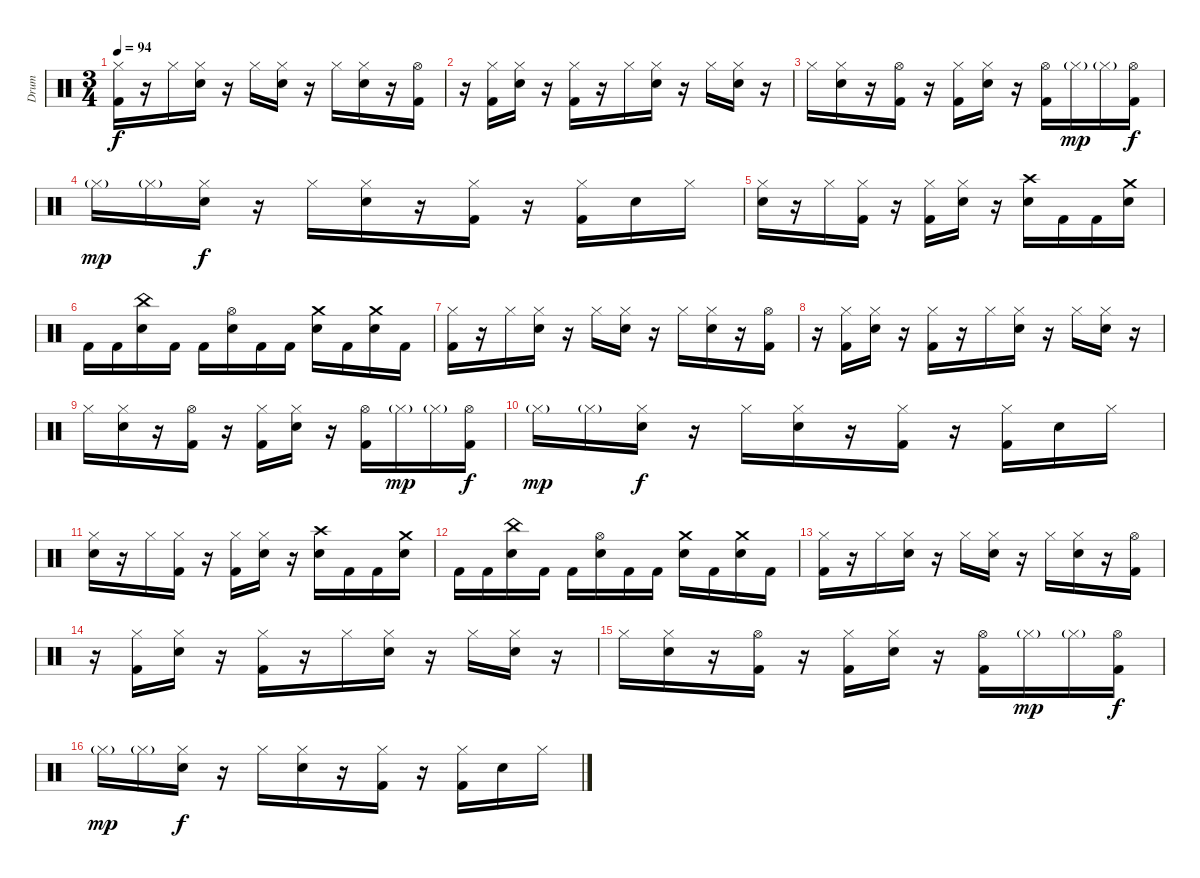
\track ("Drum" "Drum") {instrument percussion}
\staff {score}
\articulation defaults
\ts (3 4)
\tempo 94
\clef neutral
\ks c
("Hi-Hat (closed)" "Kick (hit) 2").16{dy f} r.16 "Hi-Hat (closed)".16 ("Hi-Hat (closed)" "Electric Snare (hit)").16 r.16 "Hi-Hat (closed)".16 ("Hi-Hat (closed)" "Electric Snare (hit)").16 r.16 "Hi-Hat (closed)".16 ("Hi-Hat (closed)" "Electric Snare (hit)").16 r.16 ("Hi-Hat (open)" "Kick (hit) 2").16 |
r.16 ("Hi-Hat (closed)" "Kick (hit) 2").16 ("Hi-Hat (closed)" "Electric Snare (hit)").16 r.16 ("Hi-Hat (closed)" "Kick (hit) 2").16 r.16 "Hi-Hat (closed)".16 ("Hi-Hat (closed)" "Electric Snare (hit)").16 r.16 "Hi-Hat (closed)".16 ("Hi-Hat (closed)" "Electric Snare (hit)").16 r.16 |
"Hi-Hat (closed)".16 ("Hi-Hat (closed)" "Electric Snare (hit)").16 r.16 ("Hi-Hat (open)" "Kick (hit) 2").16 r.16 ("Hi-Hat (closed)" "Kick (hit) 2").16 ("Hi-Hat (closed)" "Electric Snare (hit)").16 r.16 ("Hi-Hat (open)" "Kick (hit) 2").16 "Hi-Hat (closed)"{g}.16{dy mp} "Hi-Hat (closed)"{g}.16 ("Hi-Hat (open)" "Kick (hit) 2").16{dy f} |
"Hi-Hat (closed)"{g}.16{dy mp} "Hi-Hat (closed)"{g}.16 ("Hi-Hat (closed)" "Electric Snare (hit)").16{dy f} r.16 "Hi-Hat (closed)".16 ("Hi-Hat (closed)" "Electric Snare (hit)").16 r.16 ("Hi-Hat (closed)" "Kick (hit) 2").16 r.16 ("Hi-Hat (closed)" "Kick (hit) 2").16 "Electric Snare (hit)".16 "Hi-Hat (closed)".16 |
("Hi-Hat (closed)" "Electric Snare (hit)").16 r.16 "Hi-Hat (closed)".16 ("Hi-Hat (closed)" "Kick (hit) 2").16 r.16 ("Hi-Hat (closed)" "Kick (hit) 2").16 ("Hi-Hat (closed)" "Electric Snare (hit)").16 r.16 ("Crash high (hit)" "Electric Snare (hit)").16 "Kick (hit) 2".16 "Kick (hit) 2".16 ("Crash medium (hit)" "Electric Snare (hit)").16 |
"Kick (hit) 2".16 "Kick (hit) 2".16 ("China (hit)" "Electric Snare (hit)").16 "Kick (hit) 2".16 "Kick (hit) 2".16 ("Hi-Hat (open)" "Electric Snare (hit)").16 "Kick (hit) 2".16 "Kick (hit) 2".16 ("Crash medium (hit)" "Electric Snare (hit)").16 "Kick (hit) 2".16 ("Crash medium (hit)" "Electric Snare (hit)").16 "Kick (hit) 2".16 |
("Hi-Hat (closed)" "Kick (hit) 2").16 r.16 "Hi-Hat (closed)".16 ("Hi-Hat (closed)" "Electric Snare (hit)").16 r.16 "Hi-Hat (closed)".16 ("Hi-Hat (closed)" "Electric Snare (hit)").16 r.16 "Hi-Hat (closed)".16 ("Hi-Hat (closed)" "Electric Snare (hit)").16 r.16 ("Hi-Hat (open)" "Kick (hit) 2").16 |
r.16 ("Hi-Hat (closed)" "Kick (hit) 2").16 ("Hi-Hat (closed)" "Electric Snare (hit)").16 r.16 ("Hi-Hat (closed)" "Kick (hit) 2").16 r.16 "Hi-Hat (closed)".16 ("Hi-Hat (closed)" "Electric Snare (hit)").16 r.16 "Hi-Hat (closed)".16 ("Hi-Hat (closed)" "Electric Snare (hit)").16 r.16 |
"Hi-Hat (closed)".16 ("Hi-Hat (closed)" "Electric Snare (hit)").16 r.16 ("Hi-Hat (open)" "Kick (hit) 2").16 r.16 ("Hi-Hat (closed)" "Kick (hit) 2").16 ("Hi-Hat (closed)" "Electric Snare (hit)").16 r.16 ("Hi-Hat (open)" "Kick (hit) 2").16 "Hi-Hat (closed)"{g}.16{dy mp} "Hi-Hat (closed)"{g}.16 ("Hi-Hat (open)" "Kick (hit) 2").16{dy f} |
"Hi-Hat (closed)"{g}.16{dy mp} "Hi-Hat (closed)"{g}.16 ("Hi-Hat (closed)" "Electric Snare (hit)").16{dy f} r.16 "Hi-Hat (closed)".16 ("Hi-Hat (closed)" "Electric Snare (hit)").16 r.16 ("Hi-Hat (closed)" "Kick (hit) 2").16 r.16 ("Hi-Hat (closed)" "Kick (hit) 2").16 "Electric Snare (hit)".16 "Hi-Hat (closed)".16 |
("Hi-Hat (closed)" "Electric Snare (hit)").16 r.16 "Hi-Hat (closed)".16 ("Hi-Hat (closed)" "Kick (hit) 2").16 r.16 ("Hi-Hat (closed)" "Kick (hit) 2").16 ("Hi-Hat (closed)" "Electric Snare (hit)").16 r.16 ("Crash high (hit)" "Electric Snare (hit)").16 "Kick (hit) 2".16 "Kick (hit) 2".16 ("Crash medium (hit)" "Electric Snare (hit)").16 |
"Kick (hit) 2".16 "Kick (hit) 2".16 ("China (hit)" "Electric Snare (hit)").16 "Kick (hit) 2".16 "Kick (hit) 2".16 ("Hi-Hat (open)" "Electric Snare (hit)").16 "Kick (hit) 2".16 "Kick (hit) 2".16 ("Crash medium (hit)" "Electric Snare (hit)").16 "Kick (hit) 2".16 ("Crash medium (hit)" "Electric Snare (hit)").16 "Kick (hit) 2".16 |
("Hi-Hat (closed)" "Kick (hit) 2").16 r.16 "Hi-Hat (closed)".16 ("Hi-Hat (closed)" "Electric Snare (hit)").16 r.16 "Hi-Hat (closed)".16 ("Hi-Hat (closed)" "Electric Snare (hit)").16 r.16 "Hi-Hat (closed)".16 ("Hi-Hat (closed)" "Electric Snare (hit)").16 r.16 ("Hi-Hat (open)" "Kick (hit) 2").16 |
r.16 ("Hi-Hat (closed)" "Kick (hit) 2").16 ("Hi-Hat (closed)" "Electric Snare (hit)").16 r.16 ("Hi-Hat (closed)" "Kick (hit) 2").16 r.16 "Hi-Hat (closed)".16 ("Hi-Hat (closed)" "Electric Snare (hit)").16 r.16 "Hi-Hat (closed)".16 ("Hi-Hat (closed)" "Electric Snare (hit)").16 r.16 |
"Hi-Hat (closed)".16 ("Hi-Hat (closed)" "Electric Snare (hit)").16 r.16 ("Hi-Hat (open)" "Kick (hit) 2").16 r.16 ("Hi-Hat (closed)" "Kick (hit) 2").16 ("Hi-Hat (closed)" "Electric Snare (hit)").16 r.16 ("Hi-Hat (open)" "Kick (hit) 2").16 "Hi-Hat (closed)"{g}.16{dy mp} "Hi-Hat (closed)"{g}.16 ("Hi-Hat (open)" "Kick (hit) 2").16{dy f} |
"Hi-Hat (closed)"{g}.16{dy mp} "Hi-Hat (closed)"{g}.16 ("Hi-Hat (closed)" "Electric Snare (hit)").16{dy f} r.16 "Hi-Hat (closed)".16 ("Hi-Hat (closed)" "Electric Snare (hit)").16 r.16 ("Hi-Hat (closed)" "Kick (hit) 2").16 r.16 ("Hi-Hat (closed)" "Kick (hit) 2").16 "Electric Snare (hit)".16 "Hi-Hat (closed)".16
